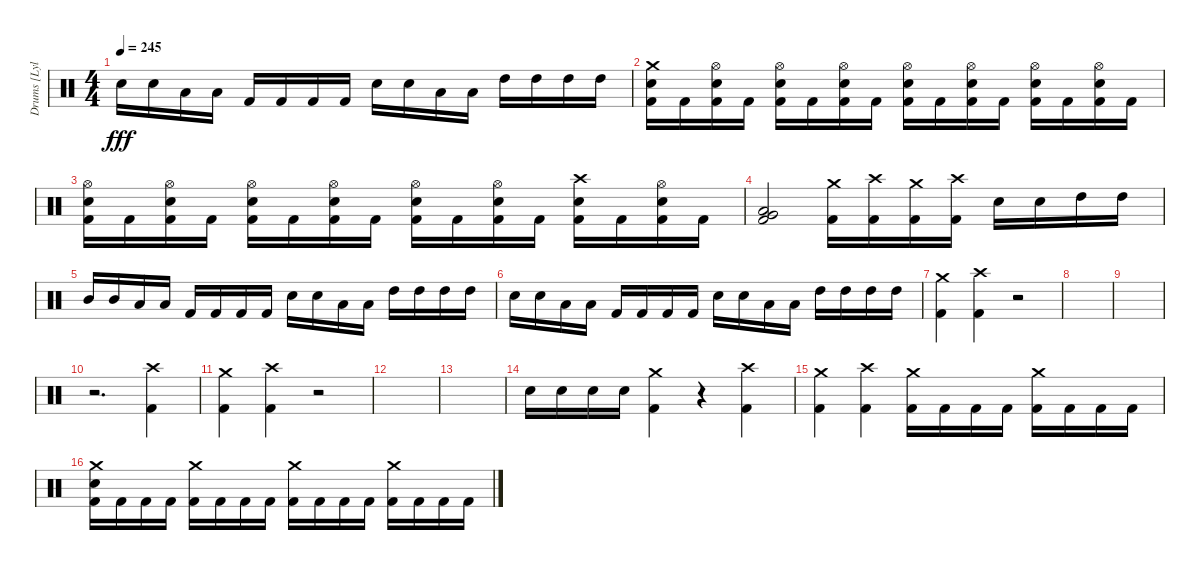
\track ("Drums [Lyle Cooper]" "Drums [Lyl") {instrument percussion}
\staff {score}
\articulation defaults
\ts (4 4)
\tempo 245
\clef neutral
\ks c "Electric Snare (hit)".16{dy fff} "Electric Snare (hit)".16 "Low Tom (hit)".16 "Low Tom (hit)".16 "Kick (hit) 2".16 "Kick (hit) 2".16 "Kick (hit) 2".16 "Kick (hit) 2".16 "Electric Snare (hit)".16 "Electric Snare (hit)".16 "Low Tom (hit)".16 "Low Tom (hit)".16 "High Tom (hit)".16 "High Tom (hit)".16 "High Tom (hit)".16 "High Tom (hit)".16
|
("Crash medium (hit)" "Electric Snare (hit)" "Kick (hit) 2").16 "Kick (hit) 2".16 ("Hi-Hat (open)" "Electric Snare (hit)" "Kick (hit) 2").16 "Kick (hit) 2".16 ("Hi-Hat (open)" "Electric Snare (hit)" "Kick (hit) 2").16 "Kick (hit) 2".16 ("Hi-Hat (open)" "Electric Snare (hit)" "Kick (hit) 2").16 "Kick (hit) 2".16 ("Hi-Hat (open)" "Electric Snare (hit)" "Kick (hit) 2").16 "Kick (hit) 2".16 ("Hi-Hat (open)" "Electric Snare (hit)" "Kick (hit) 2").16 "Kick (hit) 2".16 ("Hi-Hat (open)" "Electric Snare (hit)" "Kick (hit) 2").16 "Kick (hit) 2".16 ("Hi-Hat (open)" "Electric Snare (hit)" "Kick (hit) 2").16 "Kick (hit) 2".16 |
("Hi-Hat (open)" "Electric Snare (hit)" "Kick (hit) 2").16 "Kick (hit) 2".16 ("Hi-Hat (open)" "Electric Snare (hit)" "Kick (hit) 2").16 "Kick (hit) 2".16 ("Hi-Hat (open)" "Electric Snare (hit)" "Kick (hit) 2").16 "Kick (hit) 2".16 ("Hi-Hat (open)" "Electric Snare (hit)" "Kick (hit) 2").16 "Kick (hit) 2".16 ("Hi-Hat (open)" "Electric Snare (hit)" "Kick (hit) 2").16 "Kick (hit) 2".16 ("Hi-Hat (open)" "Electric Snare (hit)" "Kick (hit) 2").16 "Kick (hit) 2".16 ("Crash high (hit)" "Electric Snare (hit)" "Kick (hit) 2").16 "Kick (hit) 2".16 ("Hi-Hat (open)" "Electric Snare (hit)" "Kick (hit) 2").16 "Kick (hit) 2".16 |
("Low Tom (hit)" "Very Low Tom (hit)" "Kick (hit) 2").2 ("Crash medium (hit)" "Kick (hit) 2").16 ("Crash high (hit)" "Kick (hit) 2").16 ("Crash medium (hit)" "Kick (hit) 2").16 ("Crash high (hit)" "Kick (hit) 2").16 "Electric Snare (hit)".16 "Electric Snare (hit)".16 "High Tom (hit)".16 "High Tom (hit)".16 |
"Mid Tom (hit)".16 "Mid Tom (hit)".16 "Low Tom (hit)".16 "Low Tom (hit)".16 "Kick (hit) 2".16 "Kick (hit) 2".16 "Kick (hit) 2".16 "Kick (hit) 2".16 "Electric Snare (hit)".16 "Electric Snare (hit)".16 "Low Tom (hit)".16 "Low Tom (hit)".16 "High Tom (hit)".16 "High Tom (hit)".16 "High Tom (hit)".16 "High Tom (hit)".16 |
"Electric Snare (hit)".16 "Electric Snare (hit)".16 "Low Tom (hit)".16 "Low Tom (hit)".16 "Kick (hit) 2".16 "Kick (hit) 2".16 "Kick (hit) 2".16 "Kick (hit) 2".16 "Electric Snare (hit)".16 "Electric Snare (hit)".16 "Low Tom (hit)".16 "Low Tom (hit)".16 "High Tom (hit)".16 "High Tom (hit)".16 "High Tom (hit)".16 "High Tom (hit)".16 |
("Crash medium (hit)" "Kick (hit) 2").4 ("Crash high (hit)" "Kick (hit) 2").4 r.2 |
|
|
r.2{d} ("Crash high (hit)" "Kick (hit) 2").4 |
("Crash medium (hit)" "Kick (hit) 2").4 ("Crash high (hit)" "Kick (hit) 2").4 r.2 |
|
|
"Electric Snare (hit)".16 "Electric Snare (hit)".16 "Electric Snare (hit)".16 "Electric Snare (hit)".16 ("Crash medium (hit)" "Kick (hit) 2").4 r.4 ("Crash high (hit)" "Kick (hit) 2").4 |
("Crash medium (hit)" "Kick (hit) 2").4 ("Crash high (hit)" "Kick (hit) 2").4 ("Crash medium (hit)" "Kick (hit) 2").16 "Kick (hit) 2".16 "Kick (hit) 2".16 "Kick (hit) 2".16 ("Crash medium (hit)" "Kick (hit) 2").16 "Kick (hit) 2".16 "Kick (hit) 2".16 "Kick (hit) 2".16 |
("Crash medium (hit)" "Electric Snare (hit)" "Kick (hit) 2").16 "Kick (hit) 2".16 "Kick (hit) 2".16 "Kick (hit) 2".16 ("Crash medium (hit)" "Kick (hit) 2").16 "Kick (hit) 2".16 "Kick (hit) 2".16 "Kick (hit) 2".16 ("Crash medium (hit)" "Kick (hit) 2").16 "Kick (hit) 2".16 "Kick (hit) 2".16 "Kick (hit) 2".16 ("Crash medium (hit)" "Kick (hit) 2").16 "Kick (hit) 2".16 "Kick (hit) 2".16 "Kick (hit) 2".16
